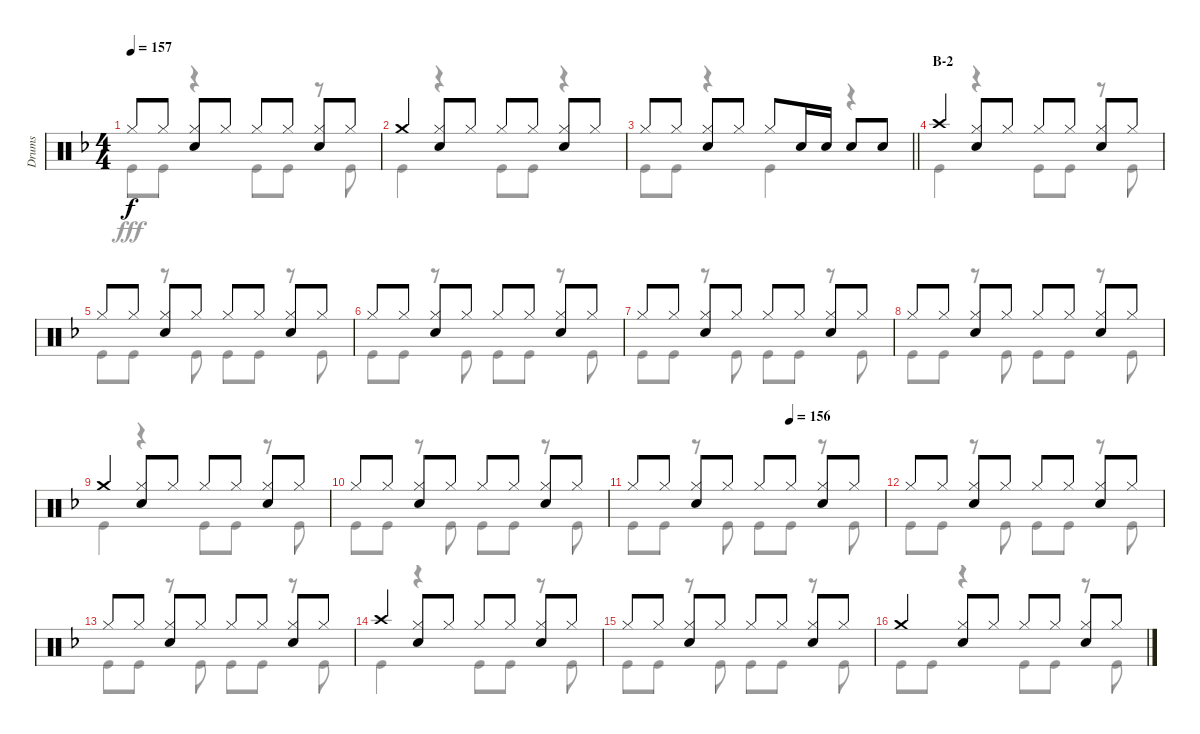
\track ("Drums" "Drums") {instrument percussion}
\staff {score}
\articulation defaults
\voice
\ts (4 4)
\tempo 157
\clef neutral
\ks f "Hi-Hat (closed)".8{dy f} "Hi-Hat (closed)".8
("Hi-Hat (closed)" "Snare (hit) 2").8 "Hi-Hat (closed)".8 "Hi-Hat (closed)".8 "Hi-Hat (closed)".8 ("Hi-Hat (closed)" "Snare (hit) 2").8 "Hi-Hat (closed)".8 |
"Crash medium (hit)".4 ("Hi-Hat (closed)" "Snare (hit) 2").8 "Hi-Hat (closed)".8 "Hi-Hat (closed)".8 "Hi-Hat (closed)".8 ("Hi-Hat (closed)" "Snare (hit) 2").8 "Hi-Hat (closed)".8 |
\barLineRight lightlight "Hi-Hat (closed)".8 "Hi-Hat (closed)".8
("Hi-Hat (closed)" "Snare (hit) 2").8 "Hi-Hat (closed)".8 "Hi-Hat (closed)".8 "Snare (hit) 2".16 "Snare (hit) 2".16 "Snare (hit) 2".8 "Snare (hit) 2".8 |
\section ("" "B-2")
"Crash high (hit)".4 ("Hi-Hat (closed)" "Snare (hit) 2").8 "Hi-Hat (closed)".8 "Hi-Hat (closed)".8 "Hi-Hat (closed)".8 ("Hi-Hat (closed)" "Snare (hit) 2").8 "Hi-Hat (closed)".8 |
"Hi-Hat (closed)".8 "Hi-Hat (closed)".8 ("Hi-Hat (closed)" "Snare (hit) 2").8 "Hi-Hat (closed)".8 "Hi-Hat (closed)".8 "Hi-Hat (closed)".8 ("Hi-Hat (closed)" "Snare (hit) 2").8 "Hi-Hat (closed)".8 |
"Hi-Hat (closed)".8 "Hi-Hat (closed)".8 ("Hi-Hat (closed)" "Snare (hit) 2").8 "Hi-Hat (closed)".8 "Hi-Hat (closed)".8 "Hi-Hat (closed)".8 ("Hi-Hat (closed)" "Snare (hit) 2").8 "Hi-Hat (closed)".8 |
"Hi-Hat (closed)".8 "Hi-Hat (closed)".8 ("Hi-Hat (closed)" "Snare (hit) 2").8 "Hi-Hat (closed)".8 "Hi-Hat (closed)".8 "Hi-Hat (closed)".8 ("Hi-Hat (closed)" "Snare (hit) 2").8 "Hi-Hat (closed)".8 |
"Hi-Hat (closed)".8 "Hi-Hat (closed)".8 ("Hi-Hat (closed)" "Snare (hit) 2").8 "Hi-Hat (closed)".8 "Hi-Hat (closed)".8 "Hi-Hat (closed)".8 ("Hi-Hat (closed)" "Snare (hit) 2").8 "Hi-Hat (closed)".8 |
"Crash medium (hit)".4 ("Hi-Hat (closed)" "Snare (hit) 2").8 "Hi-Hat (closed)".8 "Hi-Hat (closed)".8 "Hi-Hat (closed)".8 ("Hi-Hat (closed)" "Snare (hit) 2").8 "Hi-Hat (closed)".8 |
"Hi-Hat (closed)".8 "Hi-Hat (closed)".8 ("Hi-Hat (closed)" "Snare (hit) 2").8 "Hi-Hat (closed)".8 "Hi-Hat (closed)".8 "Hi-Hat (closed)".8 ("Hi-Hat (closed)" "Snare (hit) 2").8 "Hi-Hat (closed)".8 |
\tempo (156 0.625)
"Hi-Hat (closed)".8 "Hi-Hat (closed)".8 ("Hi-Hat (closed)" "Snare (hit) 2").8 "Hi-Hat (closed)".8 "Hi-Hat (closed)".8 "Hi-Hat (closed)".8 ("Hi-Hat (closed)" "Snare (hit) 2").8 "Hi-Hat (closed)".8 |
"Hi-Hat (closed)".8 "Hi-Hat (closed)".8 ("Hi-Hat (closed)" "Snare (hit) 2").8 "Hi-Hat (closed)".8 "Hi-Hat (closed)".8 "Hi-Hat (closed)".8 ("Hi-Hat (closed)" "Snare (hit) 2").8 "Hi-Hat (closed)".8 |
"Hi-Hat (closed)".8 "Hi-Hat (closed)".8 ("Hi-Hat (closed)" "Snare (hit) 2").8 "Hi-Hat (closed)".8 "Hi-Hat (closed)".8 "Hi-Hat (closed)".8 ("Hi-Hat (closed)" "Snare (hit) 2").8 "Hi-Hat (closed)".8 |
"Crash high (hit)".4 ("Hi-Hat (closed)" "Snare (hit) 2").8 "Hi-Hat (closed)".8 "Hi-Hat (closed)".8 "Hi-Hat (closed)".8 ("Hi-Hat (closed)" "Snare (hit) 2").8 "Hi-Hat (closed)".8 |
"Hi-Hat (closed)".8 "Hi-Hat (closed)".8 ("Hi-Hat (closed)" "Snare (hit) 2").8 "Hi-Hat (closed)".8 "Hi-Hat (closed)".8 "Hi-Hat (closed)".8 ("Hi-Hat (closed)" "Snare (hit) 2").8 "Hi-Hat (closed)".8 |
"Crash medium (hit)".4 ("Hi-Hat (closed)" "Snare (hit) 2").8 "Hi-Hat (closed)".8 "Hi-Hat (closed)".8 "Hi-Hat (closed)".8 ("Hi-Hat (closed)" "Snare (hit) 2").8 "Hi-Hat (closed)".8
\voice
\clef neutral
\ottava regular
\simile none
\ks f "Kick (hit)".8{dy fff} "Kick (hit)".8
r.4 "Kick (hit)".8 "Kick (hit)".8 r.8 "Kick (hit)".8 |
"Kick (hit)".4 r.4 "Kick (hit)".8 "Kick (hit)".8 r.4 |
\barLineRight lightlight "Kick (hit)".8 "Kick (hit)".8
r.4 "Kick (hit)".4 r.4 |
"Kick (hit)".4 r.4 "Kick (hit)".8 "Kick (hit)".8 r.8 "Kick (hit)".8 |
"Kick (hit)".8 "Kick (hit)".8 r.8 "Kick (hit)".8 "Kick (hit)".8 "Kick (hit)".8 r.8 "Kick (hit)".8 |
"Kick (hit)".8 "Kick (hit)".8 r.8 "Kick (hit)".8 "Kick (hit)".8 "Kick (hit)".8 r.8 "Kick (hit)".8 |
"Kick (hit)".8 "Kick (hit)".8 r.8 "Kick (hit)".8 "Kick (hit)".8 "Kick (hit)".8 r.8 "Kick (hit)".8 |
"Kick (hit)".8 "Kick (hit)".8 r.8 "Kick (hit)".8 "Kick (hit)".8 "Kick (hit)".8 r.8 "Kick (hit)".8 |
"Kick (hit)".4 r.4 "Kick (hit)".8 "Kick (hit)".8 r.8 "Kick (hit)".8 |
"Kick (hit)".8 "Kick (hit)".8 r.8 "Kick (hit)".8 "Kick (hit)".8 "Kick (hit)".8 r.8 "Kick (hit)".8 |
"Kick (hit)".8 "Kick (hit)".8 r.8 "Kick (hit)".8 "Kick (hit)".8 "Kick (hit)".8 r.8 "Kick (hit)".8 |
"Kick (hit)".8 "Kick (hit)".8 r.8 "Kick (hit)".8 "Kick (hit)".8 "Kick (hit)".8 r.8 "Kick (hit)".8 |
"Kick (hit)".8 "Kick (hit)".8 r.8 "Kick (hit)".8 "Kick (hit)".8 "Kick (hit)".8 r.8 "Kick (hit)".8 |
"Kick (hit)".4 r.4 "Kick (hit)".8 "Kick (hit)".8 r.8 "Kick (hit)".8 |
"Kick (hit)".8 "Kick (hit)".8 r.8 "Kick (hit)".8 "Kick (hit)".8 "Kick (hit)".8 r.8 "Kick (hit)".8 |
"Kick (hit)".8 "Kick (hit)".8 r.4 "Kick (hit)".8 "Kick (hit)".8 r.8 "Kick (hit)".8
